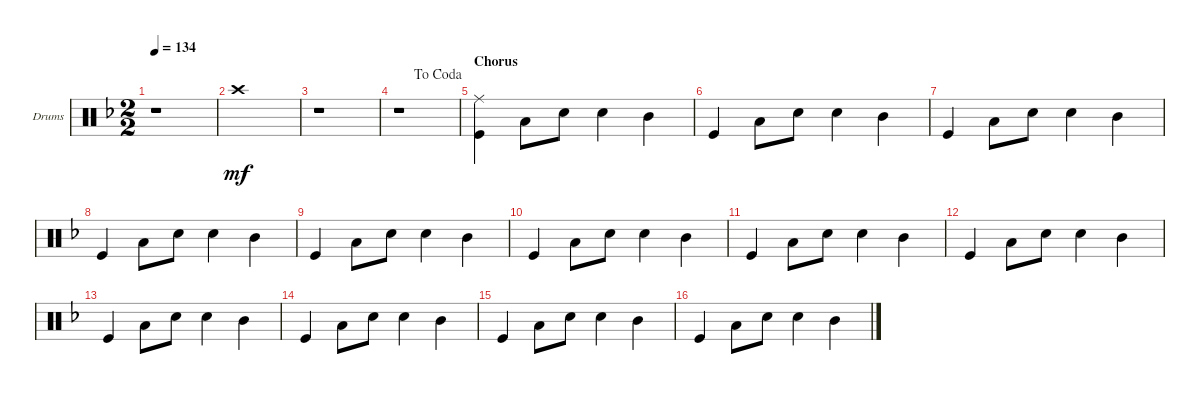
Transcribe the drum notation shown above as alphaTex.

\bracketExtendMode groupsimilarinstruments
\useSystemSignSeparator
\multiTrackTrackNamePolicy allsystems
\firstSystemTrackNameOrientation horizontal
\otherSystemsTrackNameOrientation horizontal
\track ("Drumkit" "Drums") {instrument percussion}
\staff {score}
\articulation defaults
\ts (2 2)
\scale
0.5
\tempo 134
\accidentals auto
\clef neutral
\ottava regular
\simile none
\scale
0.0602696
\ks f
r.1{dy mf} |
\scale
0.5
\scale
0.0602696 "Crash high (hit)".1 |
\scale
0.5
\scale
0.0602696 r.1 |
\scale
0.5
\jump dacoda
\scale
0.0602696 r.1 |
\section ("" "Chorus")
\scale
0.5 ("Kick (hit)" "Ride (middle)").4 "Low Tom (hit)".8 "Snare (hit) 2".8 "Snare (hit) 2".4 "Mid Tom (hit)".4 |
\scale
0.5 "Kick (hit)".4 "Low Tom (hit)".8 "Snare (hit) 2".8 "Snare (hit) 2".4 "Mid Tom (hit)".4 |
\scale
0.38961 "Kick (hit)".4 "Low Tom (hit)".8 "Snare (hit) 2".8 "Snare (hit) 2".4 "Mid Tom (hit)".4 |
\scale
0.61039 "Kick (hit)".4 "Low Tom (hit)".8 "Snare (hit) 2".8 "Snare (hit) 2".4 "Mid Tom (hit)".4 |
\scale
0.5 "Kick (hit)".4 "Low Tom (hit)".8 "Snare (hit) 2".8 "Snare (hit) 2".4 "Mid Tom (hit)".4 |
\scale
0.5 "Kick (hit)".4 "Low Tom (hit)".8 "Snare (hit) 2".8 "Snare (hit) 2".4 "Mid Tom (hit)".4 |
\scale
0.5 "Kick (hit)".4 "Low Tom (hit)".8 "Snare (hit) 2".8 "Snare (hit) 2".4 "Mid Tom (hit)".4 |
\scale
0.5 "Kick (hit)".4 "Low Tom (hit)".8 "Snare (hit) 2".8 "Snare (hit) 2".4 "Mid Tom (hit)".4 |
\scale
0.5 "Kick (hit)".4 "Low Tom (hit)".8 "Snare (hit) 2".8 "Snare (hit) 2".4 "Mid Tom (hit)".4 |
\scale
0.5 "Kick (hit)".4 "Low Tom (hit)".8 "Snare (hit) 2".8 "Snare (hit) 2".4 "Mid Tom (hit)".4 |
\scale
0.5 "Kick (hit)".4 "Low Tom (hit)".8 "Snare (hit) 2".8 "Snare (hit) 2".4 "Mid Tom (hit)".4 |
\scale
0.5 "Kick (hit)".4 "Low Tom (hit)".8 "Snare (hit) 2".8 "Snare (hit) 2".4 "Mid Tom (hit)".4
